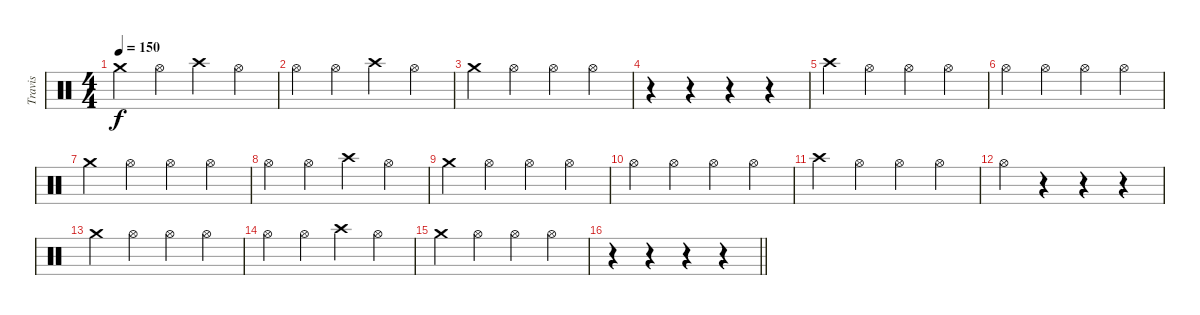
\track ("Travis" "Travis") {instrument percussion}
\staff {score}
\articulation defaults
\ts (4 4)
\tempo 150
\clef neutral
\ks c "Crash medium (hit)".4{dy f} "Hi-Hat (open)".4 "Crash high (hit)".4 "Hi-Hat (open)".4
|
"Hi-Hat (open)".4 "Hi-Hat (open)".4 "Crash high (hit)".4 "Hi-Hat (open)".4 |
"Crash medium (hit)".4 "Hi-Hat (open)".4 "Hi-Hat (open)".4 "Hi-Hat (open)".4 |
r.4 r.4 r.4 r.4 |
"Crash high (hit)".4 "Hi-Hat (open)".4 "Hi-Hat (open)".4 "Hi-Hat (open)".4 |
"Hi-Hat (open)".4 "Hi-Hat (open)".4 "Hi-Hat (open)".4 "Hi-Hat (open)".4 |
"Crash medium (hit)".4 "Hi-Hat (open)".4 "Hi-Hat (open)".4 "Hi-Hat (open)".4 |
"Hi-Hat (open)".4 "Hi-Hat (open)".4 "Crash high (hit)".4 "Hi-Hat (open)".4 |
"Crash medium (hit)".4 "Hi-Hat (open)".4 "Hi-Hat (open)".4 "Hi-Hat (open)".4 |
"Hi-Hat (open)".4 "Hi-Hat (open)".4 "Hi-Hat (open)".4 "Hi-Hat (open)".4 |
"Crash high (hit)".4 "Hi-Hat (open)".4 "Hi-Hat (open)".4 "Hi-Hat (open)".4 |
"Hi-Hat (open)".4 r.4 r.4 r.4 |
"Crash medium (hit)".4 "Hi-Hat (open)".4 "Hi-Hat (open)".4 "Hi-Hat (open)".4 |
"Hi-Hat (open)".4 "Hi-Hat (open)".4 "Crash high (hit)".4 "Hi-Hat (open)".4 |
"Crash medium (hit)".4 "Hi-Hat (open)".4 "Hi-Hat (open)".4 "Hi-Hat (open)".4 |
\barLineRight lightlight
r.4 r.4 r.4 r.4
